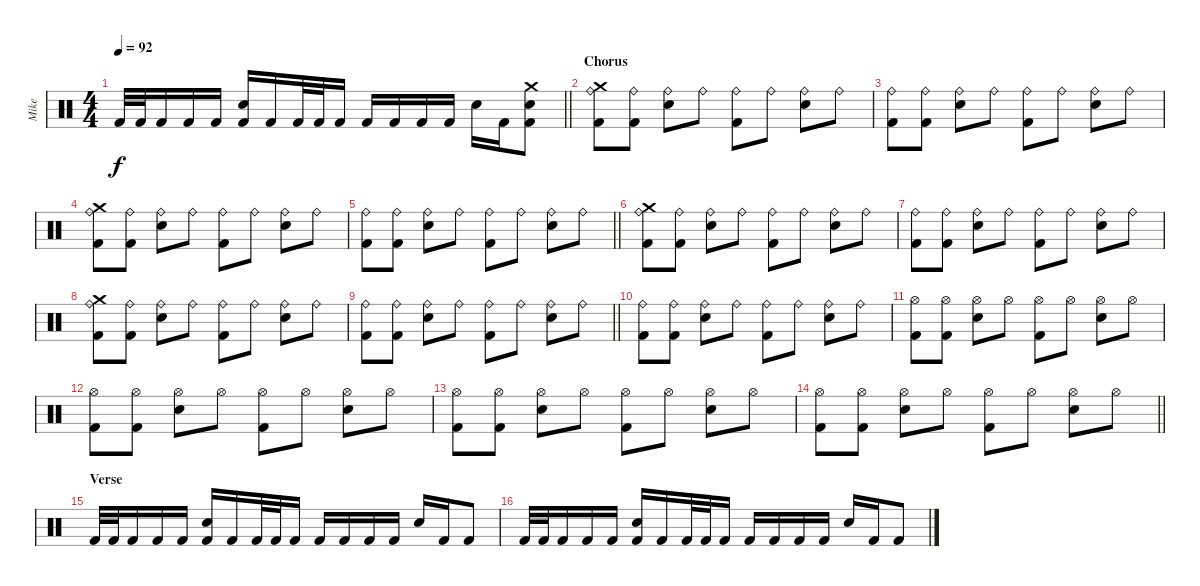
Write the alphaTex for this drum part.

\track ("Mike" "Mike") {instrument percussion}
\staff {score}
\articulation defaults
\ts (4 4)
\tempo 92
\clef neutral
\barLineRight lightlight
\ks c "Kick (hit) 2".32{dy f} "Kick (hit) 2".32 "Kick (hit) 2".16 "Kick (hit) 2".16 "Kick (hit) 2".16
("Kick (hit) 2" "Electric Snare (hit)").16 "Kick (hit) 2".16 "Kick (hit) 2".32 "Kick (hit) 2".32 "Kick (hit) 2".16 "Kick (hit) 2".16 "Kick (hit) 2".16 "Kick (hit) 2".16 "Kick (hit) 2".16 "Electric Snare (hit)".16 "Kick (hit) 2".16 ("Kick (hit) 2" "Electric Snare (hit)" "Crash medium (hit)").8 |
\section ("" "Chorus")
("Kick (hit) 2" "Ride (bell)" "Crash medium (hit)").8 ("Kick (hit) 2" "Ride (bell)").8 ("Electric Snare (hit)" "Ride (bell)").8 "Ride (bell)".8 ("Kick (hit) 2" "Ride (bell)").8 "Ride (bell)".8 ("Electric Snare (hit)" "Ride (bell)").8 "Ride (bell)".8 |
("Kick (hit) 2" "Ride (bell)").8 ("Kick (hit) 2" "Ride (bell)").8 ("Electric Snare (hit)" "Ride (bell)").8 "Ride (bell)".8 ("Kick (hit) 2" "Ride (bell)").8 "Ride (bell)".8 ("Electric Snare (hit)" "Ride (bell)").8 "Ride (bell)".8 |
("Kick (hit) 2" "Ride (bell)" "Crash medium (hit)").8 ("Kick (hit) 2" "Ride (bell)").8 ("Electric Snare (hit)" "Ride (bell)").8 "Ride (bell)".8 ("Kick (hit) 2" "Ride (bell)").8 "Ride (bell)".8 ("Electric Snare (hit)" "Ride (bell)").8 "Ride (bell)".8 |
\barLineRight lightlight
("Kick (hit) 2" "Ride (bell)").8 ("Kick (hit) 2" "Ride (bell)").8 ("Electric Snare (hit)" "Ride (bell)").8 "Ride (bell)".8 ("Kick (hit) 2" "Ride (bell)").8 "Ride (bell)".8 ("Electric Snare (hit)" "Ride (bell)").8 "Ride (bell)".8 |
("Kick (hit) 2" "Ride (bell)" "Crash medium (hit)").8 ("Kick (hit) 2" "Ride (bell)").8 ("Electric Snare (hit)" "Ride (bell)").8 "Ride (bell)".8 ("Kick (hit) 2" "Ride (bell)").8 "Ride (bell)".8 ("Electric Snare (hit)" "Ride (bell)").8 "Ride (bell)".8 |
("Kick (hit) 2" "Ride (bell)").8 ("Kick (hit) 2" "Ride (bell)").8 ("Electric Snare (hit)" "Ride (bell)").8 "Ride (bell)".8 ("Kick (hit) 2" "Ride (bell)").8 "Ride (bell)".8 ("Electric Snare (hit)" "Ride (bell)").8 "Ride (bell)".8 |
("Kick (hit) 2" "Ride (bell)" "Crash medium (hit)").8 ("Kick (hit) 2" "Ride (bell)").8 ("Electric Snare (hit)" "Ride (bell)").8 "Ride (bell)".8 ("Kick (hit) 2" "Ride (bell)").8 "Ride (bell)".8 ("Electric Snare (hit)" "Ride (bell)").8 "Ride (bell)".8 |
\barLineRight lightlight
("Kick (hit) 2" "Ride (bell)").8 ("Kick (hit) 2" "Ride (bell)").8 ("Electric Snare (hit)" "Ride (bell)").8 "Ride (bell)".8 ("Kick (hit) 2" "Ride (bell)").8 "Ride (bell)".8 ("Electric Snare (hit)" "Ride (bell)").8 "Ride (bell)".8 |
("Kick (hit) 2" "Ride (bell)").8 ("Kick (hit) 2" "Ride (bell)").8 ("Electric Snare (hit)" "Ride (bell)").8 "Ride (bell)".8 ("Kick (hit) 2" "Ride (bell)").8 "Ride (bell)".8 ("Electric Snare (hit)" "Ride (bell)").8 "Ride (bell)".8 |
("Kick (hit) 2" "Hi-Hat (open)").8 ("Kick (hit) 2" "Hi-Hat (open)").8 ("Electric Snare (hit)" "Hi-Hat (open)").8 "Hi-Hat (open)".8 ("Kick (hit) 2" "Hi-Hat (open)").8 "Hi-Hat (open)".8 ("Electric Snare (hit)" "Hi-Hat (open)").8 "Hi-Hat (open)".8 |
("Kick (hit) 2" "Hi-Hat (open)").8 ("Kick (hit) 2" "Hi-Hat (open)").8 ("Electric Snare (hit)" "Hi-Hat (open)").8 "Hi-Hat (open)".8 ("Kick (hit) 2" "Hi-Hat (open)").8 "Hi-Hat (open)".8 ("Electric Snare (hit)" "Hi-Hat (open)").8 "Hi-Hat (open)".8 |
("Kick (hit) 2" "Hi-Hat (open)").8 ("Kick (hit) 2" "Hi-Hat (open)").8 ("Electric Snare (hit)" "Hi-Hat (open)").8 "Hi-Hat (open)".8 ("Kick (hit) 2" "Hi-Hat (open)").8 "Hi-Hat (open)".8 ("Electric Snare (hit)" "Hi-Hat (open)").8 "Hi-Hat (open)".8 |
\barLineRight lightlight
("Kick (hit) 2" "Hi-Hat (open)").8 ("Kick (hit) 2" "Hi-Hat (open)").8 ("Electric Snare (hit)" "Hi-Hat (open)").8 "Hi-Hat (open)".8 ("Kick (hit) 2" "Hi-Hat (open)").8 "Hi-Hat (open)".8 ("Electric Snare (hit)" "Hi-Hat (open)").8 "Hi-Hat (open)".8 |
\section ("" "Verse")
"Kick (hit) 2".32 "Kick (hit) 2".32 "Kick (hit) 2".16 "Kick (hit) 2".16 "Kick (hit) 2".16 ("Kick (hit) 2" "Electric Snare (hit)").16 "Kick (hit) 2".16 "Kick (hit) 2".32 "Kick (hit) 2".32 "Kick (hit) 2".16 "Kick (hit) 2".16 "Kick (hit) 2".16 "Kick (hit) 2".16 "Kick (hit) 2".16 "Electric Snare (hit)".16 "Kick (hit) 2".16 "Kick (hit) 2".8 |
"Kick (hit) 2".32 "Kick (hit) 2".32 "Kick (hit) 2".16 "Kick (hit) 2".16 "Kick (hit) 2".16 ("Kick (hit) 2" "Electric Snare (hit)").16 "Kick (hit) 2".16 "Kick (hit) 2".32 "Kick (hit) 2".32 "Kick (hit) 2".16 "Kick (hit) 2".16 "Kick (hit) 2".16 "Kick (hit) 2".16 "Kick (hit) 2".16 "Electric Snare (hit)".16 "Kick (hit) 2".16 "Kick (hit) 2".8
